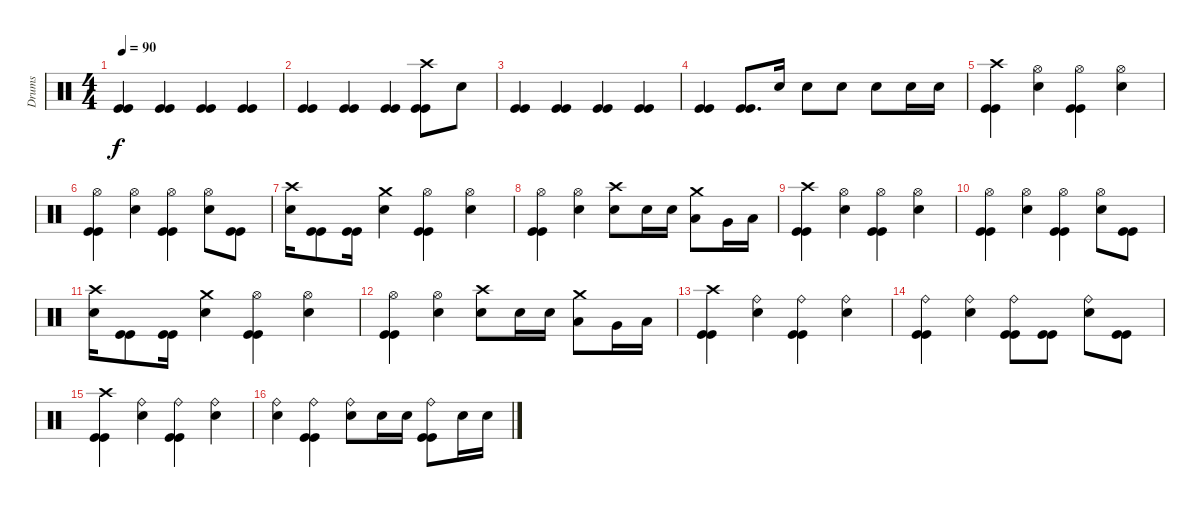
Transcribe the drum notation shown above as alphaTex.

\track ("Drums" "Drums") {instrument percussion}
\staff {score}
\articulation defaults
\ts (4 4)
\tempo 90
\clef neutral
\ks c
("Kick (hit)" "Kick (hit)").4{dy f} ("Kick (hit)" "Kick (hit)").4 ("Kick (hit)" "Kick (hit)").4 ("Kick (hit)" "Kick (hit)").4 |
("Kick (hit)" "Kick (hit)").4 ("Kick (hit)" "Kick (hit)").4 ("Kick (hit)" "Kick (hit)").4 ("Kick (hit)" "Kick (hit)" "Crash high (hit)").8 "Snare (hit) 2".8 |
("Kick (hit)" "Kick (hit)").4 ("Kick (hit)" "Kick (hit)").4 ("Kick (hit)" "Kick (hit)").4 ("Kick (hit)" "Kick (hit)").4 |
("Kick (hit)" "Kick (hit)").4 ("Kick (hit)" "Kick (hit)").8{d} "Snare (hit) 2".16 "Snare (hit) 2".8 "Snare (hit) 2".8 "Snare (hit) 2".8 "Snare (hit) 2".16 "Snare (hit) 2".16 |
("Kick (hit)" "Kick (hit)" "Crash high (hit)").4 ("Snare (hit) 2" "Hi-Hat (open)").4 ("Kick (hit)" "Kick (hit)" "Hi-Hat (open)").4 ("Snare (hit) 2" "Hi-Hat (open)").4 |
("Kick (hit)" "Kick (hit)" "Hi-Hat (open)").4 ("Snare (hit) 2" "Hi-Hat (open)").4 ("Kick (hit)" "Kick (hit)" "Hi-Hat (open)").4 ("Snare (hit) 2" "Hi-Hat (open)").8 ("Kick (hit)" "Kick (hit)").8 |
("Snare (hit) 2" "Crash high (hit)").16 ("Kick (hit)" "Kick (hit)").8 ("Kick (hit)" "Kick (hit)").16 ("Snare (hit) 2" "Crash medium (hit)").4 ("Kick (hit)" "Kick (hit)" "Hi-Hat (open)").4 ("Snare (hit) 2" "Hi-Hat (open)").4 |
("Kick (hit)" "Kick (hit)" "Hi-Hat (open)").4 ("Snare (hit) 2" "Hi-Hat (open)").4 ("Snare (hit) 2" "Crash high (hit)").8 "Snare (hit) 2".16 "Snare (hit) 2".16 ("Low Tom (hit)" "Crash medium (hit)").8 "Very Low Tom (hit)".16 "Low Floor Tom (hit)".16 |
("Kick (hit)" "Kick (hit)" "Crash high (hit)").4 ("Snare (hit) 2" "Hi-Hat (open)").4 ("Kick (hit)" "Kick (hit)" "Hi-Hat (open)").4 ("Snare (hit) 2" "Hi-Hat (open)").4 |
("Kick (hit)" "Kick (hit)" "Hi-Hat (open)").4 ("Snare (hit) 2" "Hi-Hat (open)").4 ("Kick (hit)" "Kick (hit)" "Hi-Hat (open)").4 ("Snare (hit) 2" "Hi-Hat (open)").8 ("Kick (hit)" "Kick (hit)").8 |
("Snare (hit) 2" "Crash high (hit)").16 ("Kick (hit)" "Kick (hit)").8 ("Kick (hit)" "Kick (hit)").16 ("Snare (hit) 2" "Crash medium (hit)").4 ("Kick (hit)" "Kick (hit)" "Hi-Hat (open)").4 ("Snare (hit) 2" "Hi-Hat (open)").4 |
("Kick (hit)" "Kick (hit)" "Hi-Hat (open)").4 ("Snare (hit) 2" "Hi-Hat (open)").4 ("Snare (hit) 2" "Crash high (hit)").8 "Snare (hit) 2".16 "Snare (hit) 2".16 ("Low Tom (hit)" "Crash medium (hit)").8 "Very Low Tom (hit)".16 "Low Floor Tom (hit)".16 |
("Kick (hit)" "Kick (hit)" "Crash high (hit)").4 ("Snare (hit) 2" "Ride (bell)").4 ("Kick (hit)" "Kick (hit)" "Ride (bell)").4 ("Snare (hit) 2" "Ride (bell)").4 |
("Kick (hit)" "Kick (hit)" "Ride (bell)").4 ("Snare (hit) 2" "Ride (bell)").4 ("Kick (hit)" "Kick (hit)" "Ride (bell)").8 ("Kick (hit)" "Kick (hit)").8 ("Snare (hit) 2" "Ride (bell)").8 ("Kick (hit)" "Kick (hit)").8 |
("Kick (hit)" "Kick (hit)" "Crash high (hit)").4 ("Snare (hit) 2" "Ride (bell)").4 ("Kick (hit)" "Kick (hit)" "Ride (bell)").4 ("Snare (hit) 2" "Ride (bell)").4 |
("Snare (hit) 2" "Ride (bell)").4 ("Kick (hit)" "Kick (hit)" "Ride (bell)").4 ("Snare (hit) 2" "Ride (bell)").8 "Snare (hit) 2".16 "Snare (hit) 2".16 ("Kick (hit)" "Kick (hit)" "Ride (bell)").8 "Snare (hit) 2".16 "Snare (hit) 2".16
